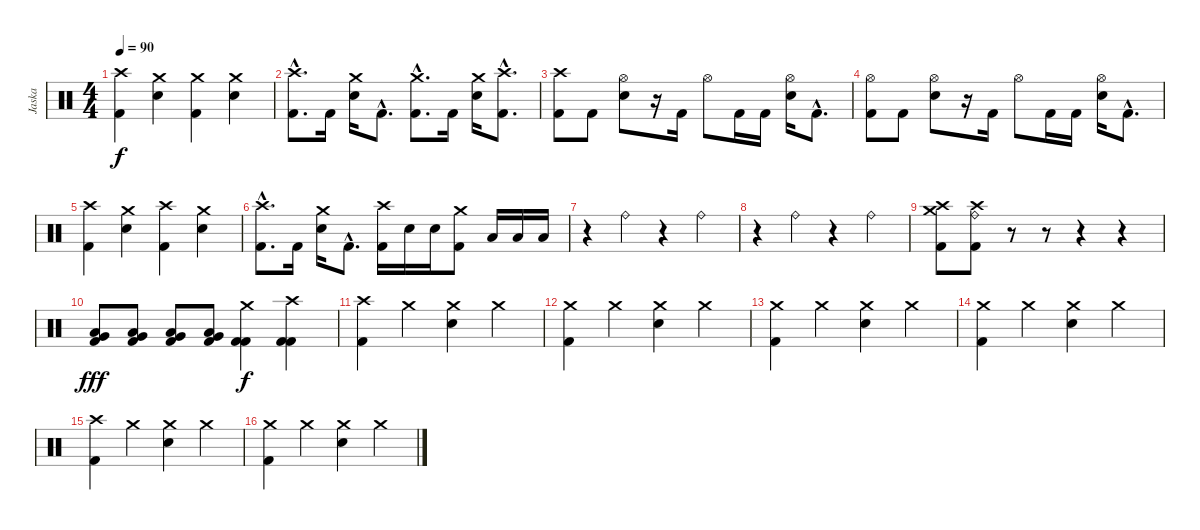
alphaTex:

\track ("Jaska" "Jaska") {instrument percussion}
\staff {score}
\articulation defaults
\ts (4 4)
\tempo 90
\clef neutral
\ks c
("Crash high (hit)" "Kick (hit) 2").4{dy f} ("Crash medium (hit)" "Snare (hit) 2").4 ("Crash medium (hit)" "Kick (hit) 2").4 ("Crash medium (hit)" "Snare (hit) 2").4 |
("Crash high (hit)"{hac} "Kick (hit) 2"{hac}).8{d} "Kick (hit) 2".16 ("Crash medium (hit)" "Snare (hit) 2").16 "Kick (hit) 2"{hac}.8{d} ("Crash medium (hit)"{hac} "Kick (hit) 2"{hac}).8{d} "Kick (hit) 2".16 ("Crash medium (hit)" "Snare (hit) 2").16 ("Crash high (hit)"{hac} "Kick (hit) 2"{hac}).8{d} |
("Crash high (hit)" "Kick (hit) 2").8 "Kick (hit) 2".8 ("Hi-Hat (open)" "Snare (hit) 2").8 r.16 "Kick (hit) 2".16 "Hi-Hat (open)".8 "Kick (hit) 2".16 "Kick (hit) 2".16 ("Hi-Hat (open)" "Snare (hit) 2").16 "Kick (hit) 2"{hac}.8{d} |
("Hi-Hat (open)" "Kick (hit) 2").8 "Kick (hit) 2".8 ("Hi-Hat (open)" "Snare (hit) 2").8 r.16 "Kick (hit) 2".16 "Hi-Hat (open)".8 "Kick (hit) 2".16 "Kick (hit) 2".16 ("Hi-Hat (open)" "Snare (hit) 2").16 "Kick (hit) 2"{hac}.8{d} |
("Crash high (hit)" "Kick (hit) 2").4 ("Crash medium (hit)" "Snare (hit) 2").4 ("Crash high (hit)" "Kick (hit) 2").4 ("Crash medium (hit)" "Snare (hit) 2").4 |
("Crash high (hit)"{hac} "Kick (hit) 2"{hac}).8{d} "Kick (hit) 2".16 ("Crash medium (hit)" "Snare (hit) 2").16 "Kick (hit) 2"{hac}.8{d} ("Crash high (hit)" "Kick (hit) 2").16 "Snare (hit) 2".16 "Snare (hit) 2".16 ("Crash medium (hit)" "Kick (hit) 2").8 "Low Tom (hit)".16 "Low Tom (hit)".16 "Low Tom (hit)".16 |
r.4 "Ride (bell)".4 r.4 "Ride (bell)".4 |
r.4 "Ride (bell)".4 r.4 "Ride (bell)".4 |
("Crash high (hit)" "Crash medium (hit)" "Kick (hit) 2").8 ("Crash high (hit)" "Ride (bell)" "Kick (hit) 2").8 r.8{volume 0} r.8 r.4 r.4 |
("Very Low Tom (hit)" "Low Floor Tom (hit)" "Kick (hit) 2").8{dy fff volume 16} ("Very Low Tom (hit)" "Low Floor Tom (hit)" "Kick (hit) 2").8 ("Very Low Tom (hit)" "Low Floor Tom (hit)" "Kick (hit) 2").8 ("Very Low Tom (hit)" "Low Floor Tom (hit)" "Kick (hit) 2").8 ("Crash medium (hit)" "Kick (hit) 2" "Kick (hit) 2").4{dy f} ("Crash high (hit)" "Kick (hit) 2" "Kick (hit) 2").4 |
("Crash high (hit)" "Kick (hit) 2").4 "Crash medium (hit)".4 ("Crash medium (hit)" "Snare (hit) 2").4 "Crash medium (hit)".4 |
("Crash medium (hit)" "Kick (hit) 2").4 "Crash medium (hit)".4 ("Crash medium (hit)" "Snare (hit) 2").4 "Crash medium (hit)".4 |
("Crash medium (hit)" "Kick (hit) 2").4 "Crash medium (hit)".4 ("Crash medium (hit)" "Snare (hit) 2").4 "Crash medium (hit)".4 |
("Crash medium (hit)" "Kick (hit) 2").4 "Crash medium (hit)".4 ("Crash medium (hit)" "Snare (hit) 2").4 "Crash medium (hit)".4 |
("Crash high (hit)" "Kick (hit) 2").4 "Crash medium (hit)".4 ("Crash medium (hit)" "Snare (hit) 2").4 "Crash medium (hit)".4 |
("Crash medium (hit)" "Kick (hit) 2").4 "Crash medium (hit)".4 ("Crash medium (hit)" "Snare (hit) 2").4 "Crash medium (hit)".4
